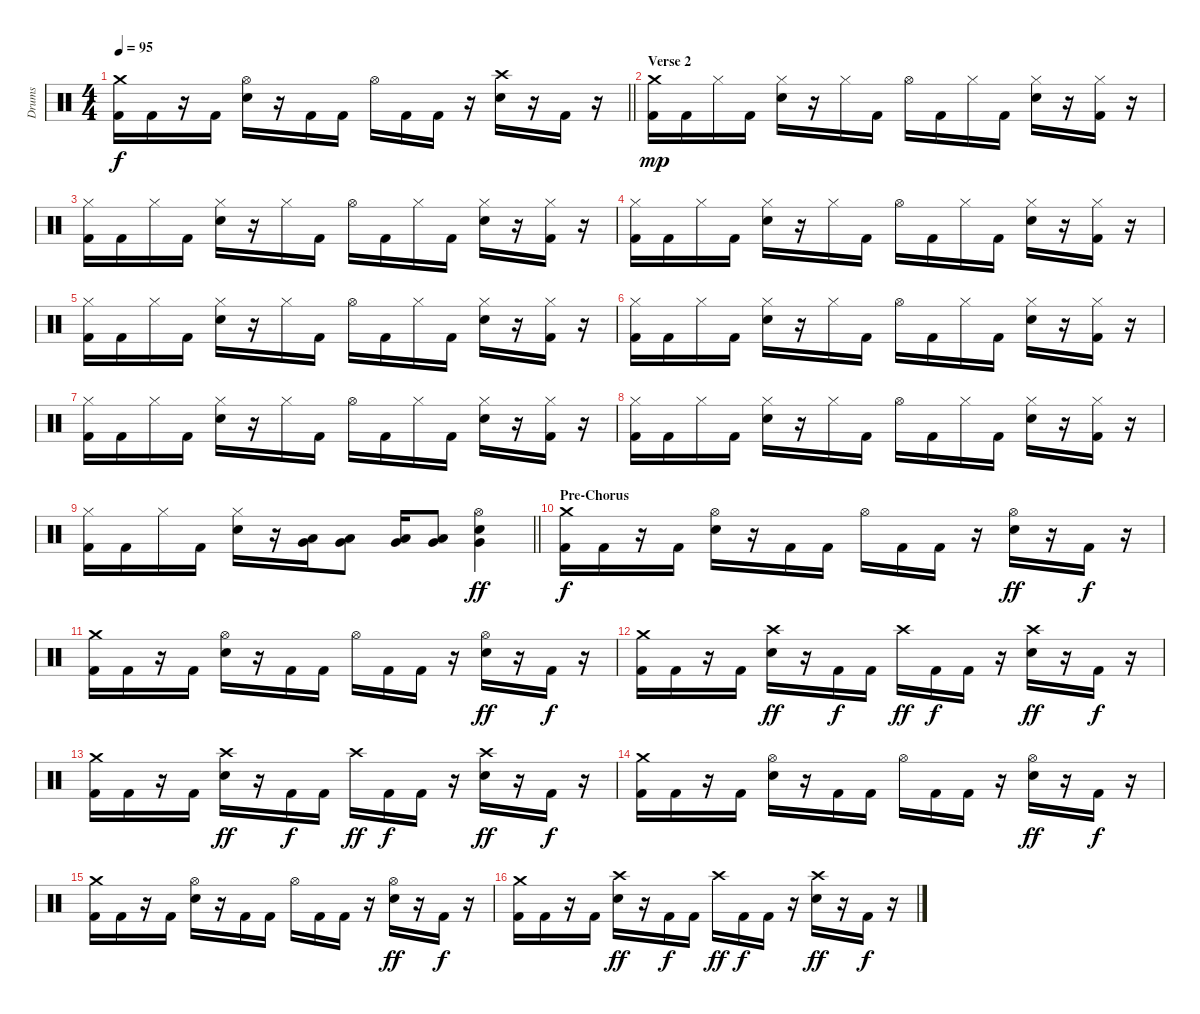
\track ("Drums" "Drums") {instrument percussion}
\staff {score}
\articulation defaults
\ts (4 4)
\tempo 95
\clef neutral
\barLineRight lightlight
\ks c
("Crash medium (hit)" "Kick (hit) 2").16{dy f} "Kick (hit) 2".16 r.16 "Kick (hit) 2".16 ("Hi-Hat (open)" "Electric Snare (hit)").16 r.16 "Kick (hit) 2".16 "Kick (hit) 2".16 "Hi-Hat (open)".16 "Kick (hit) 2".16 "Kick (hit) 2".16 r.16 ("Crash high (hit)" "Electric Snare (hit)").16 r.16 "Kick (hit) 2".16 r.16 |
\section ("" "Verse 2")
("Crash medium (hit)" "Kick (hit) 2").16{dy mp} "Kick (hit) 2".16 "Hi-Hat (closed)".16 "Kick (hit) 2".16 ("Hi-Hat (closed)" "Electric Snare (hit)").16 r.16 "Hi-Hat (closed)".16 "Kick (hit) 2".16 "Hi-Hat (open)".16 "Kick (hit) 2".16 "Hi-Hat (closed)".16 "Kick (hit) 2".16 ("Hi-Hat (closed)" "Electric Snare (hit)").16 r.16 ("Hi-Hat (closed)" "Kick (hit) 2").16 r.16 |
("Hi-Hat (closed)" "Kick (hit) 2").16 "Kick (hit) 2".16 "Hi-Hat (closed)".16 "Kick (hit) 2".16 ("Hi-Hat (closed)" "Electric Snare (hit)").16 r.16 "Hi-Hat (closed)".16 "Kick (hit) 2".16 "Hi-Hat (open)".16 "Kick (hit) 2".16 "Hi-Hat (closed)".16 "Kick (hit) 2".16 ("Hi-Hat (closed)" "Electric Snare (hit)").16 r.16 ("Hi-Hat (closed)" "Kick (hit) 2").16 r.16 |
("Hi-Hat (closed)" "Kick (hit) 2").16 "Kick (hit) 2".16 "Hi-Hat (closed)".16 "Kick (hit) 2".16 ("Hi-Hat (closed)" "Electric Snare (hit)").16 r.16 "Hi-Hat (closed)".16 "Kick (hit) 2".16 "Hi-Hat (open)".16 "Kick (hit) 2".16 "Hi-Hat (closed)".16 "Kick (hit) 2".16 ("Hi-Hat (closed)" "Electric Snare (hit)").16 r.16 ("Hi-Hat (closed)" "Kick (hit) 2").16 r.16 |
("Hi-Hat (closed)" "Kick (hit) 2").16 "Kick (hit) 2".16 "Hi-Hat (closed)".16 "Kick (hit) 2".16 ("Hi-Hat (closed)" "Electric Snare (hit)").16 r.16 "Hi-Hat (closed)".16 "Kick (hit) 2".16 "Hi-Hat (open)".16 "Kick (hit) 2".16 "Hi-Hat (closed)".16 "Kick (hit) 2".16 ("Hi-Hat (closed)" "Electric Snare (hit)").16 r.16 ("Hi-Hat (closed)" "Kick (hit) 2").16 r.16 |
("Hi-Hat (closed)" "Kick (hit) 2").16 "Kick (hit) 2".16 "Hi-Hat (closed)".16 "Kick (hit) 2".16 ("Hi-Hat (closed)" "Electric Snare (hit)").16 r.16 "Hi-Hat (closed)".16 "Kick (hit) 2".16 "Hi-Hat (open)".16 "Kick (hit) 2".16 "Hi-Hat (closed)".16 "Kick (hit) 2".16 ("Hi-Hat (closed)" "Electric Snare (hit)").16 r.16 ("Hi-Hat (closed)" "Kick (hit) 2").16 r.16 |
("Hi-Hat (closed)" "Kick (hit) 2").16 "Kick (hit) 2".16 "Hi-Hat (closed)".16 "Kick (hit) 2".16 ("Hi-Hat (closed)" "Electric Snare (hit)").16 r.16 "Hi-Hat (closed)".16 "Kick (hit) 2".16 "Hi-Hat (open)".16 "Kick (hit) 2".16 "Hi-Hat (closed)".16 "Kick (hit) 2".16 ("Hi-Hat (closed)" "Electric Snare (hit)").16 r.16 ("Hi-Hat (closed)" "Kick (hit) 2").16 r.16 |
("Hi-Hat (closed)" "Kick (hit) 2").16 "Kick (hit) 2".16 "Hi-Hat (closed)".16 "Kick (hit) 2".16 ("Hi-Hat (closed)" "Electric Snare (hit)").16 r.16 "Hi-Hat (closed)".16 "Kick (hit) 2".16 "Hi-Hat (open)".16 "Kick (hit) 2".16 "Hi-Hat (closed)".16 "Kick (hit) 2".16 ("Hi-Hat (closed)" "Electric Snare (hit)").16 r.16 ("Hi-Hat (closed)" "Kick (hit) 2").16 r.16 |
\barLineRight lightlight
("Hi-Hat (closed)" "Kick (hit) 2").16 "Kick (hit) 2".16 "Hi-Hat (closed)".16 "Kick (hit) 2".16 ("Hi-Hat (closed)" "Electric Snare (hit)").16 r.16 ("Low Tom (hit)" "Very Low Tom (hit)").16 ("Low Tom (hit)" "Very Low Tom (hit)").8 ("Low Tom (hit)" "Very Low Tom (hit)").16 ("Low Tom (hit)" "Very Low Tom (hit)").8 ("Hi-Hat (open)" "Very Low Tom (hit)" "Electric Snare (hit)").4{dy ff} |
\section ("" "Pre-Chorus")
("Crash medium (hit)" "Kick (hit) 2").16{dy f} "Kick (hit) 2".16 r.16 "Kick (hit) 2".16 ("Hi-Hat (open)" "Electric Snare (hit)").16 r.16 "Kick (hit) 2".16 "Kick (hit) 2".16 "Hi-Hat (open)".16 "Kick (hit) 2".16 "Kick (hit) 2".16 r.16 ("Hi-Hat (open)" "Electric Snare (hit)").16{dy ff} r.16 "Kick (hit) 2".16{dy f} r.16 |
("Crash medium (hit)" "Kick (hit) 2").16 "Kick (hit) 2".16 r.16 "Kick (hit) 2".16 ("Hi-Hat (open)" "Electric Snare (hit)").16 r.16 "Kick (hit) 2".16 "Kick (hit) 2".16 "Hi-Hat (open)".16 "Kick (hit) 2".16 "Kick (hit) 2".16 r.16 ("Hi-Hat (open)" "Electric Snare (hit)").16{dy ff} r.16 "Kick (hit) 2".16{dy f} r.16 |
("Crash medium (hit)" "Kick (hit) 2").16 "Kick (hit) 2".16 r.16 "Kick (hit) 2".16 ("Crash high (hit)" "Electric Snare (hit)").16{dy ff} r.16 "Kick (hit) 2".16{dy f} "Kick (hit) 2".16 "Crash high (hit)".16{dy ff} "Kick (hit) 2".16{dy f} "Kick (hit) 2".16 r.16 ("Crash high (hit)" "Electric Snare (hit)").16{dy ff} r.16 "Kick (hit) 2".16{dy f} r.16 |
("Crash medium (hit)" "Kick (hit) 2").16 "Kick (hit) 2".16 r.16 "Kick (hit) 2".16 ("Crash high (hit)" "Electric Snare (hit)").16{dy ff} r.16 "Kick (hit) 2".16{dy f} "Kick (hit) 2".16 "Crash high (hit)".16{dy ff} "Kick (hit) 2".16{dy f} "Kick (hit) 2".16 r.16 ("Crash high (hit)" "Electric Snare (hit)").16{dy ff} r.16 "Kick (hit) 2".16{dy f} r.16 |
("Crash medium (hit)" "Kick (hit) 2").16 "Kick (hit) 2".16 r.16 "Kick (hit) 2".16 ("Hi-Hat (open)" "Electric Snare (hit)").16 r.16 "Kick (hit) 2".16 "Kick (hit) 2".16 "Hi-Hat (open)".16 "Kick (hit) 2".16 "Kick (hit) 2".16 r.16 ("Hi-Hat (open)" "Electric Snare (hit)").16{dy ff} r.16 "Kick (hit) 2".16{dy f} r.16 |
("Crash medium (hit)" "Kick (hit) 2").16 "Kick (hit) 2".16 r.16 "Kick (hit) 2".16 ("Hi-Hat (open)" "Electric Snare (hit)").16 r.16 "Kick (hit) 2".16 "Kick (hit) 2".16 "Hi-Hat (open)".16 "Kick (hit) 2".16 "Kick (hit) 2".16 r.16 ("Hi-Hat (open)" "Electric Snare (hit)").16{dy ff} r.16 "Kick (hit) 2".16{dy f} r.16 |
("Crash medium (hit)" "Kick (hit) 2").16 "Kick (hit) 2".16 r.16 "Kick (hit) 2".16 ("Crash high (hit)" "Electric Snare (hit)").16{dy ff} r.16 "Kick (hit) 2".16{dy f} "Kick (hit) 2".16 "Crash high (hit)".16{dy ff} "Kick (hit) 2".16{dy f} "Kick (hit) 2".16 r.16 ("Crash high (hit)" "Electric Snare (hit)").16{dy ff} r.16 "Kick (hit) 2".16{dy f} r.16
